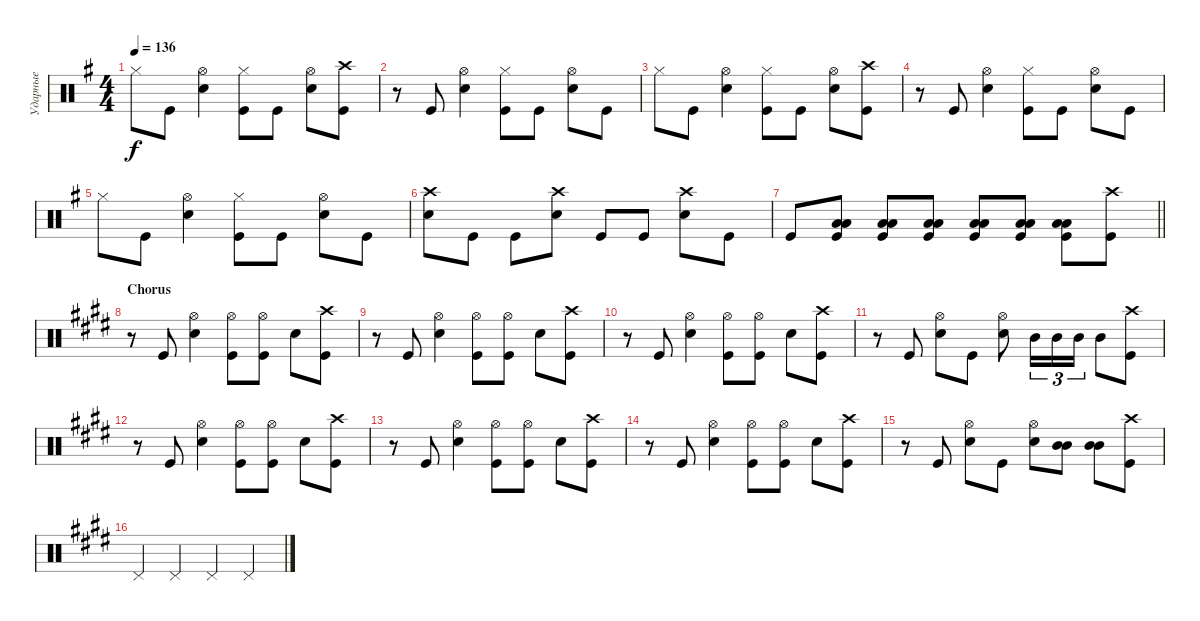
\track ("Ударные" "Ударные") {instrument percussion}
\staff {score}
\articulation defaults
\ts (4 4)
\tempo 136
\clef neutral
\ks eminor "Hi-Hat (closed)".8{dy f} "Kick (hit)".8
("Snare (hit) 2" "Hi-Hat (open)").4 ("Kick (hit)" "Hi-Hat (closed)").8 "Kick (hit)".8 ("Snare (hit) 2" "Hi-Hat (open)").8 ("Kick (hit)" "Crash high (hit)").8 |
r.8 "Kick (hit)".8 ("Snare (hit) 2" "Hi-Hat (open)").4 ("Kick (hit)" "Hi-Hat (closed)").8 "Kick (hit)".8 ("Snare (hit) 2" "Hi-Hat (open)").8 "Kick (hit)".8 |
"Hi-Hat (closed)".8 "Kick (hit)".8 ("Snare (hit) 2" "Hi-Hat (open)").4 ("Kick (hit)" "Hi-Hat (closed)").8 "Kick (hit)".8 ("Snare (hit) 2" "Hi-Hat (open)").8 ("Kick (hit)" "Crash high (hit)").8 |
r.8 "Kick (hit)".8 ("Snare (hit) 2" "Hi-Hat (open)").4 ("Kick (hit)" "Hi-Hat (closed)").8 "Kick (hit)".8 ("Snare (hit) 2" "Hi-Hat (open)").8 "Kick (hit)".8 |
"Hi-Hat (closed)".8 "Kick (hit)".8 ("Snare (hit) 2" "Hi-Hat (open)").4 ("Kick (hit)" "Hi-Hat (closed)").8 "Kick (hit)".8 ("Snare (hit) 2" "Hi-Hat (open)").8 "Kick (hit)".8 |
("Snare (hit) 2" "Crash high (hit)").8 "Kick (hit)".8 "Kick (hit)".8 ("Snare (hit) 2" "Crash high (hit)").8 "Kick (hit)".8 "Kick (hit)".8 ("Snare (hit) 2" "Crash high (hit)").8 "Kick (hit)".8 |
\barLineRight lightlight "Kick (hit)".8
("Kick (hit)" "Low Tom (hit)" "Low Tom (hit)").8{bd 120} ("Kick (hit)" "Low Tom (hit)" "Low Tom (hit)").8{bd 120} ("Kick (hit)" "Low Tom (hit)" "Low Tom (hit)").8{bd 120} ("Kick (hit)" "Low Tom (hit)" "Low Tom (hit)").8{bd 120} ("Kick (hit)" "Low Tom (hit)" "Low Tom (hit)").8{bd 120} ("Kick (hit)" "Low Tom (hit)" "Low Tom (hit)").8{bd 120} ("Kick (hit)" "Crash high (hit)").8 |
\section ("" "Chorus")
\ks c#minor
r.8 "Kick (hit)".8 ("Snare (hit) 2" "Hi-Hat (open)").4 ("Kick (hit)" "Hi-Hat (open)").8 ("Kick (hit)" "Hi-Hat (open)").8 "Snare (hit) 2".8 ("Kick (hit)" "Crash high (hit)").8 |
r.8 "Kick (hit)".8 ("Snare (hit) 2" "Hi-Hat (open)").4 ("Kick (hit)" "Hi-Hat (open)").8 ("Kick (hit)" "Hi-Hat (open)").8 "Snare (hit) 2".8 ("Kick (hit)" "Crash high (hit)").8 |
r.8 "Kick (hit)".8 ("Snare (hit) 2" "Hi-Hat (open)").4 ("Kick (hit)" "Hi-Hat (open)").8 ("Kick (hit)" "Hi-Hat (open)").8 "Snare (hit) 2".8 ("Kick (hit)" "Crash high (hit)").8 |
r.8 "Kick (hit)".8 ("Snare (hit) 2" "Hi-Hat (open)").8 "Kick (hit)".8 ("Snare (hit) 2" "Hi-Hat (open)").8 "Mid Tom (hit)".16{tu (3 2)} "Mid Tom (hit)".16{tu (3 2)} "Mid Tom (hit)".16{tu (3 2)} "Mid Tom (hit)".8 ("Kick (hit)" "Crash high (hit)").8 |
r.8 "Kick (hit)".8 ("Snare (hit) 2" "Hi-Hat (open)").4 ("Kick (hit)" "Hi-Hat (open)").8 ("Kick (hit)" "Hi-Hat (open)").8 "Snare (hit) 2".8 ("Kick (hit)" "Crash high (hit)").8 |
r.8 "Kick (hit)".8 ("Snare (hit) 2" "Hi-Hat (open)").4 ("Kick (hit)" "Hi-Hat (open)").8 ("Kick (hit)" "Hi-Hat (open)").8 "Snare (hit) 2".8 ("Kick (hit)" "Crash high (hit)").8 |
r.8 "Kick (hit)".8 ("Snare (hit) 2" "Hi-Hat (open)").4 ("Kick (hit)" "Hi-Hat (open)").8 ("Kick (hit)" "Hi-Hat (open)").8 "Snare (hit) 2".8 ("Kick (hit)" "Crash high (hit)").8 |
r.8 "Kick (hit)".8 ("Snare (hit) 2" "Hi-Hat (open)").8 "Kick (hit)".8 ("Snare (hit) 2" "Hi-Hat (open)").8 ("Mid Tom (hit)" "Mid Tom (hit)").8{bd 120} ("Mid Tom (hit)" "Mid Tom (hit)").8{bd 120} ("Kick (hit)" "Crash high (hit)").8 |
"Pedal Hi-Hat (hit)".4 "Pedal Hi-Hat (hit)".4 "Pedal Hi-Hat (hit)".4 "Pedal Hi-Hat (hit)".4
